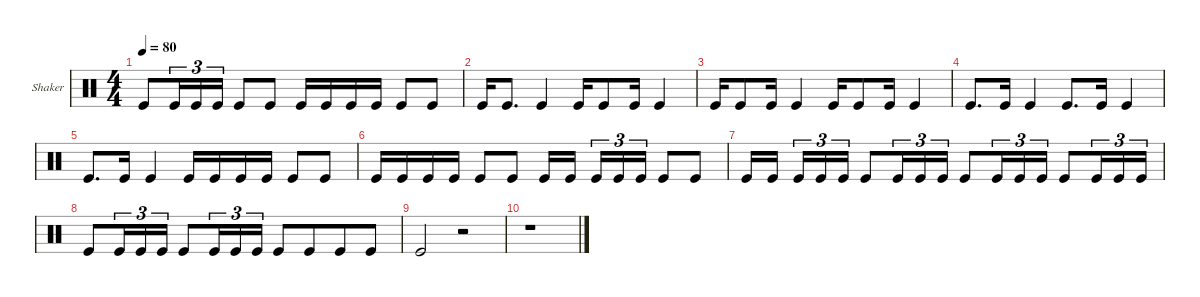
\defaultSystemsLayout 4
\hideDynamics
\bracketExtendMode groupsimilarinstruments
\firstSystemTrackNameOrientation horizontal
\otherSystemsTrackNameOrientation horizontal
\track ("Shaker" "Shaker") {multiBarRest instrument percussion}
\staff {score}
\articulation defaults
\ts (4 4)
\tempo 80
\clef neutral
\ks c "Kick (hit)".8{dy p beam merge} "Kick (hit)".16{tu (3 2)} "Kick (hit)".16{tu (3 2)} "Kick (hit)".16{tu (3 2)} "Kick (hit)".8 "Kick (hit)".8 "Kick (hit)".16 "Kick (hit)".16 "Kick (hit)".16 "Kick (hit)".16 "Kick (hit)".8 "Kick (hit)".8
|
"Kick (hit)".16 "Kick (hit)".8{d} "Kick (hit)".4 "Kick (hit)".16 "Kick (hit)".8 "Kick (hit)".16 "Kick (hit)".4 |
"Kick (hit)".16 "Kick (hit)".8 "Kick (hit)".16 "Kick (hit)".4 "Kick (hit)".16 "Kick (hit)".8 "Kick (hit)".16 "Kick (hit)".4 |
"Kick (hit)".8{d} "Kick (hit)".16 "Kick (hit)".4 "Kick (hit)".8{d} "Kick (hit)".16 "Kick (hit)".4 |
"Kick (hit)".8{d} "Kick (hit)".16 "Kick (hit)".4 "Kick (hit)".16 "Kick (hit)".16 "Kick (hit)".16 "Kick (hit)".16 "Kick (hit)".8 "Kick (hit)".8 |
"Kick (hit)".16 "Kick (hit)".16 "Kick (hit)".16 "Kick (hit)".16 "Kick (hit)".8 "Kick (hit)".8 "Kick (hit)".16 "Kick (hit)".16{beam splitsecondary} "Kick (hit)".16{tu (3 2)} "Kick (hit)".16{tu (3 2)} "Kick (hit)".16{tu (3 2)} "Kick (hit)".8 "Kick (hit)".8 |
"Kick (hit)".16 "Kick (hit)".16{beam splitsecondary} "Kick (hit)".16{tu (3 2)} "Kick (hit)".16{tu (3 2)} "Kick (hit)".16{tu (3 2)} "Kick (hit)".8{beam merge} "Kick (hit)".16{tu (3 2) beam merge} "Kick (hit)".16{tu (3 2)} "Kick (hit)".16{tu (3 2)} "Kick (hit)".8{beam merge} "Kick (hit)".16{tu (3 2) beam merge} "Kick (hit)".16{tu (3 2)} "Kick (hit)".16{tu (3 2)} "Kick (hit)".8{beam merge} "Kick (hit)".16{tu (3 2)} "Kick (hit)".16{tu (3 2)} "Kick (hit)".16{tu (3 2)} |
"Kick (hit)".8{beam merge} "Kick (hit)".16{tu (3 2)} "Kick (hit)".16{tu (3 2)} "Kick (hit)".16{tu (3 2)} "Kick (hit)".8{beam merge} "Kick (hit)".16{tu (3 2) beam merge} "Kick (hit)".16{tu (3 2)} "Kick (hit)".16{tu (3 2)} "Kick (hit)".8 "Kick (hit)".8{beam merge} "Kick (hit)".8 "Kick (hit)".8 |
"Kick (hit)".2 r.2 |
r.1
